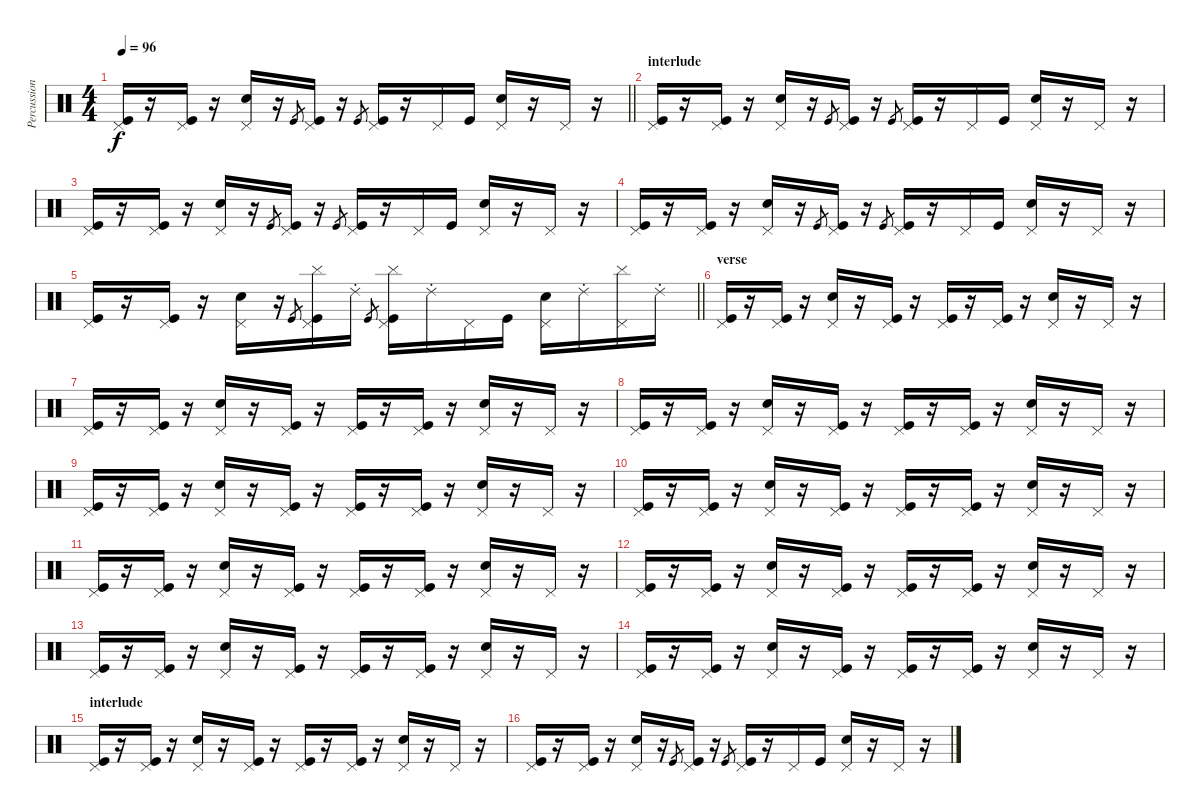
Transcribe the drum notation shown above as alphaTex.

\track ("Percussions" "Percussion") {instrument percussion}
\staff {score}
\articulation defaults
\ts (4 4)
\tempo 96
\clef neutral
\barLineRight lightlight
\ks c
("Pedal Hi-Hat (hit)" "Kick (hit)").16{dy f} r.16 ("Pedal Hi-Hat (hit)" "Kick (hit)").16 r.16 ("Pedal Hi-Hat (hit)" "Electric Snare (hit)").16 r.16 "Kick (hit)".8{gr} ("Pedal Hi-Hat (hit)" "Kick (hit)").16 r.16 "Kick (hit)".8{gr} ("Pedal Hi-Hat (hit)" "Kick (hit)").16 r.16 "Pedal Hi-Hat (hit)".16 "Kick (hit)".16 ("Pedal Hi-Hat (hit)" "Electric Snare (hit)").16 r.16 "Pedal Hi-Hat (hit)".16 r.16 |
\section ("" "interlude")
("Pedal Hi-Hat (hit)" "Kick (hit)").16 r.16 ("Pedal Hi-Hat (hit)" "Kick (hit)").16 r.16 ("Pedal Hi-Hat (hit)" "Electric Snare (hit)").16 r.16 "Kick (hit)".8{gr} ("Pedal Hi-Hat (hit)" "Kick (hit)").16 r.16 "Kick (hit)".8{gr} ("Pedal Hi-Hat (hit)" "Kick (hit)").16 r.16 "Pedal Hi-Hat (hit)".16 "Kick (hit)".16 ("Pedal Hi-Hat (hit)" "Electric Snare (hit)").16 r.16 "Pedal Hi-Hat (hit)".16 r.16 |
("Pedal Hi-Hat (hit)" "Kick (hit)").16 r.16 ("Pedal Hi-Hat (hit)" "Kick (hit)").16 r.16 ("Pedal Hi-Hat (hit)" "Electric Snare (hit)").16 r.16 "Kick (hit)".8{gr} ("Pedal Hi-Hat (hit)" "Kick (hit)").16 r.16 "Kick (hit)".8{gr} ("Pedal Hi-Hat (hit)" "Kick (hit)").16 r.16 "Pedal Hi-Hat (hit)".16 "Kick (hit)".16 ("Pedal Hi-Hat (hit)" "Electric Snare (hit)").16 r.16 "Pedal Hi-Hat (hit)".16 r.16 |
("Pedal Hi-Hat (hit)" "Kick (hit)").16 r.16 ("Pedal Hi-Hat (hit)" "Kick (hit)").16 r.16 ("Pedal Hi-Hat (hit)" "Electric Snare (hit)").16 r.16 "Kick (hit)".8{gr} ("Pedal Hi-Hat (hit)" "Kick (hit)").16 r.16 "Kick (hit)".8{gr} ("Pedal Hi-Hat (hit)" "Kick (hit)").16 r.16 "Pedal Hi-Hat (hit)".16 "Kick (hit)".16 ("Pedal Hi-Hat (hit)" "Electric Snare (hit)").16 r.16 "Pedal Hi-Hat (hit)".16 r.16 |
\barLineRight lightlight
("Pedal Hi-Hat (hit)" "Kick (hit)").16 r.16 ("Pedal Hi-Hat (hit)" "Kick (hit)").16 r.16 ("Pedal Hi-Hat (hit)" "Electric Snare (hit)").16 r.16 "Kick (hit)".8{gr} ("Pedal Hi-Hat (hit)" "Cymbal (hit)" "Kick (hit)").16 "Ride (choke) 2".16 "Kick (hit)".8{gr} ("Pedal Hi-Hat (hit)" "Cymbal (hit)" "Kick (hit)").16 "Ride (choke) 2".16 "Pedal Hi-Hat (hit)".16 "Kick (hit)".16 ("Pedal Hi-Hat (hit)" "Electric Snare (hit)").16 "Ride (choke) 2".16 ("Pedal Hi-Hat (hit)" "Cymbal (hit)").16 "Ride (choke) 2".16 |
\section ("" "verse")
("Pedal Hi-Hat (hit)" "Kick (hit)").16{volume 16} r.16 ("Pedal Hi-Hat (hit)" "Kick (hit)").16 r.16 ("Pedal Hi-Hat (hit)" "Electric Snare (hit)").16 r.16 ("Pedal Hi-Hat (hit)" "Kick (hit)").16 r.16 ("Pedal Hi-Hat (hit)" "Kick (hit)").16 r.16 ("Pedal Hi-Hat (hit)" "Kick (hit)").16 r.16 ("Pedal Hi-Hat (hit)" "Electric Snare (hit)").16 r.16 "Pedal Hi-Hat (hit)".16 r.16 |
("Pedal Hi-Hat (hit)" "Kick (hit)").16 r.16 ("Pedal Hi-Hat (hit)" "Kick (hit)").16 r.16 ("Pedal Hi-Hat (hit)" "Electric Snare (hit)").16 r.16 ("Pedal Hi-Hat (hit)" "Kick (hit)").16 r.16 ("Pedal Hi-Hat (hit)" "Kick (hit)").16 r.16 ("Pedal Hi-Hat (hit)" "Kick (hit)").16 r.16 ("Pedal Hi-Hat (hit)" "Electric Snare (hit)").16 r.16 "Pedal Hi-Hat (hit)".16 r.16 |
("Pedal Hi-Hat (hit)" "Kick (hit)").16 r.16 ("Pedal Hi-Hat (hit)" "Kick (hit)").16 r.16 ("Pedal Hi-Hat (hit)" "Electric Snare (hit)").16 r.16 ("Pedal Hi-Hat (hit)" "Kick (hit)").16 r.16 ("Pedal Hi-Hat (hit)" "Kick (hit)").16 r.16 ("Pedal Hi-Hat (hit)" "Kick (hit)").16 r.16 ("Pedal Hi-Hat (hit)" "Electric Snare (hit)").16 r.16 "Pedal Hi-Hat (hit)".16 r.16 |
("Pedal Hi-Hat (hit)" "Kick (hit)").16 r.16 ("Pedal Hi-Hat (hit)" "Kick (hit)").16 r.16 ("Pedal Hi-Hat (hit)" "Electric Snare (hit)").16 r.16 ("Pedal Hi-Hat (hit)" "Kick (hit)").16 r.16 ("Pedal Hi-Hat (hit)" "Kick (hit)").16 r.16 ("Pedal Hi-Hat (hit)" "Kick (hit)").16 r.16 ("Pedal Hi-Hat (hit)" "Electric Snare (hit)").16 r.16 "Pedal Hi-Hat (hit)".16 r.16 |
("Pedal Hi-Hat (hit)" "Kick (hit)").16 r.16 ("Pedal Hi-Hat (hit)" "Kick (hit)").16 r.16 ("Pedal Hi-Hat (hit)" "Electric Snare (hit)").16 r.16 ("Pedal Hi-Hat (hit)" "Kick (hit)").16 r.16 ("Pedal Hi-Hat (hit)" "Kick (hit)").16 r.16 ("Pedal Hi-Hat (hit)" "Kick (hit)").16 r.16 ("Pedal Hi-Hat (hit)" "Electric Snare (hit)").16 r.16 "Pedal Hi-Hat (hit)".16 r.16 |
("Pedal Hi-Hat (hit)" "Kick (hit)").16 r.16 ("Pedal Hi-Hat (hit)" "Kick (hit)").16 r.16 ("Pedal Hi-Hat (hit)" "Electric Snare (hit)").16 r.16 ("Pedal Hi-Hat (hit)" "Kick (hit)").16 r.16 ("Pedal Hi-Hat (hit)" "Kick (hit)").16 r.16 ("Pedal Hi-Hat (hit)" "Kick (hit)").16 r.16 ("Pedal Hi-Hat (hit)" "Electric Snare (hit)").16 r.16 "Pedal Hi-Hat (hit)".16 r.16 |
("Pedal Hi-Hat (hit)" "Kick (hit)").16 r.16 ("Pedal Hi-Hat (hit)" "Kick (hit)").16 r.16 ("Pedal Hi-Hat (hit)" "Electric Snare (hit)").16 r.16 ("Pedal Hi-Hat (hit)" "Kick (hit)").16 r.16 ("Pedal Hi-Hat (hit)" "Kick (hit)").16 r.16 ("Pedal Hi-Hat (hit)" "Kick (hit)").16 r.16 ("Pedal Hi-Hat (hit)" "Electric Snare (hit)").16 r.16 "Pedal Hi-Hat (hit)".16 r.16 |
("Pedal Hi-Hat (hit)" "Kick (hit)").16 r.16 ("Pedal Hi-Hat (hit)" "Kick (hit)").16 r.16 ("Pedal Hi-Hat (hit)" "Electric Snare (hit)").16 r.16 ("Pedal Hi-Hat (hit)" "Kick (hit)").16 r.16 ("Pedal Hi-Hat (hit)" "Kick (hit)").16 r.16 ("Pedal Hi-Hat (hit)" "Kick (hit)").16 r.16 ("Pedal Hi-Hat (hit)" "Electric Snare (hit)").16 r.16 "Pedal Hi-Hat (hit)".16 r.16 |
("Pedal Hi-Hat (hit)" "Kick (hit)").16 r.16 ("Pedal Hi-Hat (hit)" "Kick (hit)").16 r.16 ("Pedal Hi-Hat (hit)" "Electric Snare (hit)").16 r.16 ("Pedal Hi-Hat (hit)" "Kick (hit)").16 r.16 ("Pedal Hi-Hat (hit)" "Kick (hit)").16 r.16 ("Pedal Hi-Hat (hit)" "Kick (hit)").16 r.16 ("Pedal Hi-Hat (hit)" "Electric Snare (hit)").16 r.16 "Pedal Hi-Hat (hit)".16 r.16 |
\section ("" "interlude")
("Pedal Hi-Hat (hit)" "Kick (hit)").16 r.16 ("Pedal Hi-Hat (hit)" "Kick (hit)").16 r.16 ("Pedal Hi-Hat (hit)" "Electric Snare (hit)").16 r.16 ("Pedal Hi-Hat (hit)" "Kick (hit)").16 r.16 ("Pedal Hi-Hat (hit)" "Kick (hit)").16 r.16 ("Pedal Hi-Hat (hit)" "Kick (hit)").16 r.16 ("Pedal Hi-Hat (hit)" "Electric Snare (hit)").16 r.16 "Pedal Hi-Hat (hit)".16 r.16 |
("Pedal Hi-Hat (hit)" "Kick (hit)").16 r.16 ("Pedal Hi-Hat (hit)" "Kick (hit)").16 r.16 ("Pedal Hi-Hat (hit)" "Electric Snare (hit)").16 r.16 "Kick (hit)".8{gr} ("Pedal Hi-Hat (hit)" "Kick (hit)").16 r.16 "Kick (hit)".8{gr} ("Pedal Hi-Hat (hit)" "Kick (hit)").16 r.16 "Pedal Hi-Hat (hit)".16 "Kick (hit)".16 ("Pedal Hi-Hat (hit)" "Electric Snare (hit)").16 r.16 "Pedal Hi-Hat (hit)".16 r.16
